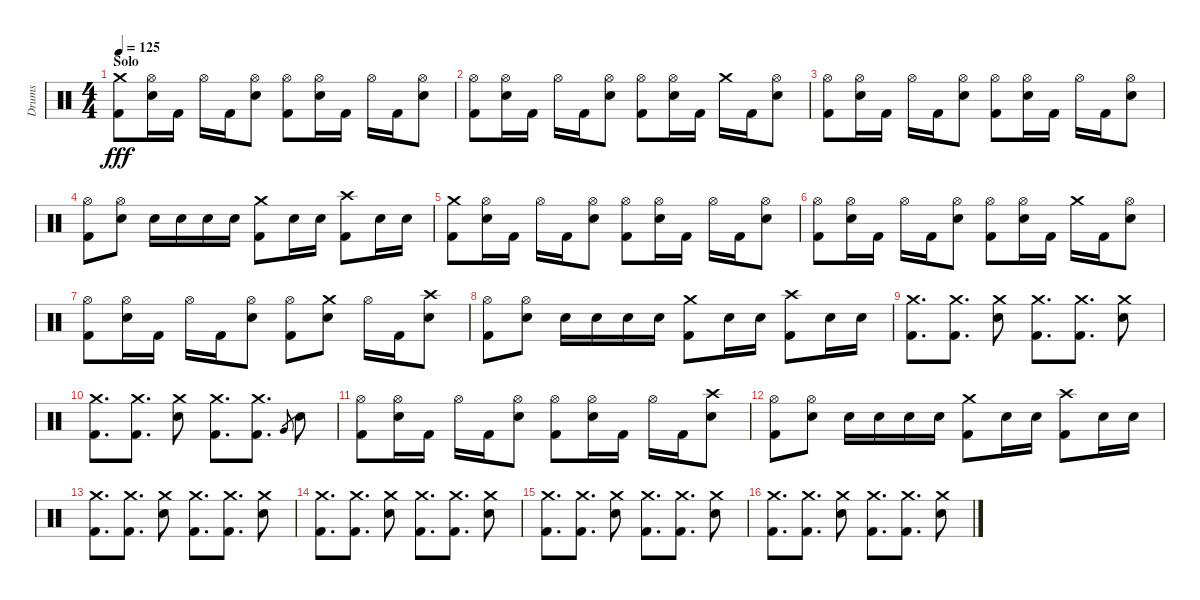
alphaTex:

\track ("Drums" "Drums") {instrument percussion}
\staff {score}
\articulation defaults
\ts (4 4)
\section ("" "Solo")
\tempo 125
\clef neutral
\ks c
("Crash medium (hit)" "Kick (hit) 2").8{dy fff} ("Hi-Hat (open)" "Electric Snare (hit)").16 "Kick (hit) 2".16 "Hi-Hat (open)".16 "Kick (hit) 2".16 ("Hi-Hat (open)" "Electric Snare (hit)").8 ("Hi-Hat (open)" "Kick (hit) 2").8 ("Hi-Hat (open)" "Electric Snare (hit)").16 "Kick (hit) 2".16 "Hi-Hat (open)".16 "Kick (hit) 2".16 ("Hi-Hat (open)" "Electric Snare (hit)").8 |
("Hi-Hat (open)" "Kick (hit) 2").8 ("Hi-Hat (open)" "Electric Snare (hit)").16 "Kick (hit) 2".16 "Hi-Hat (open)".16 "Kick (hit) 2".16 ("Hi-Hat (open)" "Electric Snare (hit)").8 ("Hi-Hat (open)" "Kick (hit) 2").8 ("Hi-Hat (open)" "Electric Snare (hit)").16 "Kick (hit) 2".16 "Crash medium (hit)".16 "Kick (hit) 2".16 ("Hi-Hat (open)" "Electric Snare (hit)").8 |
("Hi-Hat (open)" "Kick (hit) 2").8 ("Hi-Hat (open)" "Electric Snare (hit)").16 "Kick (hit) 2".16 "Hi-Hat (open)".16 "Kick (hit) 2".16 ("Hi-Hat (open)" "Electric Snare (hit)").8 ("Hi-Hat (open)" "Kick (hit) 2").8 ("Hi-Hat (open)" "Electric Snare (hit)").16 "Kick (hit) 2".16 "Hi-Hat (open)".16 "Kick (hit) 2".16 ("Hi-Hat (open)" "Electric Snare (hit)").8 |
("Hi-Hat (open)" "Kick (hit) 2").8 ("Hi-Hat (open)" "Electric Snare (hit)").8 "Electric Snare (hit)".16 "Electric Snare (hit)".16 "Electric Snare (hit)".16 "Electric Snare (hit)".16 ("Crash medium (hit)" "Kick (hit) 2").8 "Electric Snare (hit)".16 "Electric Snare (hit)".16 ("Crash high (hit)" "Kick (hit) 2").8 "Electric Snare (hit)".16 "Electric Snare (hit)".16 |
("Crash medium (hit)" "Kick (hit) 2").8 ("Hi-Hat (open)" "Electric Snare (hit)").16 "Kick (hit) 2".16 "Hi-Hat (open)".16 "Kick (hit) 2".16 ("Hi-Hat (open)" "Electric Snare (hit)").8 ("Hi-Hat (open)" "Kick (hit) 2").8 ("Hi-Hat (open)" "Electric Snare (hit)").16 "Kick (hit) 2".16 "Hi-Hat (open)".16 "Kick (hit) 2".16 ("Hi-Hat (open)" "Electric Snare (hit)").8 |
("Hi-Hat (open)" "Kick (hit) 2").8 ("Hi-Hat (open)" "Electric Snare (hit)").16 "Kick (hit) 2".16 "Hi-Hat (open)".16 "Kick (hit) 2".16 ("Hi-Hat (open)" "Electric Snare (hit)").8 ("Hi-Hat (open)" "Kick (hit) 2").8 ("Hi-Hat (open)" "Electric Snare (hit)").16 "Kick (hit) 2".16 "Crash medium (hit)".16 "Kick (hit) 2".16 ("Hi-Hat (open)" "Electric Snare (hit)").8 |
("Hi-Hat (open)" "Kick (hit) 2").8 ("Hi-Hat (open)" "Electric Snare (hit)").16 "Kick (hit) 2".16 "Hi-Hat (open)".16 "Kick (hit) 2".16 ("Hi-Hat (open)" "Electric Snare (hit)").8 ("Hi-Hat (open)" "Kick (hit) 2").8 ("Crash medium (hit)" "Electric Snare (hit)").8 "Hi-Hat (open)".16 "Kick (hit) 2".16 ("Crash high (hit)" "Electric Snare (hit)").8 |
("Hi-Hat (open)" "Kick (hit) 2").8 ("Hi-Hat (open)" "Electric Snare (hit)").8 "Electric Snare (hit)".16 "Electric Snare (hit)".16 "Electric Snare (hit)".16 "Electric Snare (hit)".16 ("Crash medium (hit)" "Kick (hit) 2").8 "Electric Snare (hit)".16 "Electric Snare (hit)".16 ("Crash high (hit)" "Kick (hit) 2").8 "Electric Snare (hit)".16 "Electric Snare (hit)".16 |
("Crash medium (hit)" "Kick (hit) 2").8{d} ("Crash medium (hit)" "Kick (hit) 2").8{d} ("Crash medium (hit)" "Electric Snare (hit)").8 ("Crash medium (hit)" "Kick (hit) 2").8{d} ("Crash medium (hit)" "Kick (hit) 2").8{d} ("Crash medium (hit)" "Electric Snare (hit)").8 |
("Crash medium (hit)" "Kick (hit) 2").8{d} ("Crash medium (hit)" "Kick (hit) 2").8{d} ("Crash medium (hit)" "Electric Snare (hit)").8 ("Crash medium (hit)" "Kick (hit) 2").8{d} ("Crash medium (hit)" "Kick (hit) 2").8{d} "Very Low Tom (hit)".8{gr} "Electric Snare (hit)".8 |
("Hi-Hat (open)" "Kick (hit) 2").8 ("Hi-Hat (open)" "Electric Snare (hit)").16 "Kick (hit) 2".16 "Hi-Hat (open)".16 "Kick (hit) 2".16 ("Hi-Hat (open)" "Electric Snare (hit)").8 ("Hi-Hat (open)" "Kick (hit) 2").8 ("Hi-Hat (open)" "Electric Snare (hit)").16 "Kick (hit) 2".16 "Hi-Hat (open)".16 "Kick (hit) 2".16 ("Crash high (hit)" "Electric Snare (hit)").8 |
("Hi-Hat (open)" "Kick (hit) 2").8 ("Hi-Hat (open)" "Electric Snare (hit)").8 "Electric Snare (hit)".16 "Electric Snare (hit)".16 "Electric Snare (hit)".16 "Electric Snare (hit)".16 ("Crash medium (hit)" "Kick (hit) 2").8 "Electric Snare (hit)".16 "Electric Snare (hit)".16 ("Crash high (hit)" "Kick (hit) 2").8 "Electric Snare (hit)".16 "Electric Snare (hit)".16 |
("Crash medium (hit)" "Kick (hit) 2").8{d} ("Crash medium (hit)" "Kick (hit) 2").8{d} ("Crash medium (hit)" "Electric Snare (hit)").8 ("Crash medium (hit)" "Kick (hit) 2").8{d} ("Crash medium (hit)" "Kick (hit) 2").8{d} ("Crash medium (hit)" "Electric Snare (hit)").8 |
("Crash medium (hit)" "Kick (hit) 2").8{d} ("Crash medium (hit)" "Kick (hit) 2").8{d} ("Crash medium (hit)" "Electric Snare (hit)").8 ("Crash medium (hit)" "Kick (hit) 2").8{d} ("Crash medium (hit)" "Kick (hit) 2").8{d} ("Crash medium (hit)" "Electric Snare (hit)").8 |
("Crash medium (hit)" "Kick (hit) 2").8{d} ("Crash medium (hit)" "Kick (hit) 2").8{d} ("Crash medium (hit)" "Electric Snare (hit)").8 ("Crash medium (hit)" "Kick (hit) 2").8{d} ("Crash medium (hit)" "Kick (hit) 2").8{d} ("Crash medium (hit)" "Electric Snare (hit)").8 |
("Crash medium (hit)" "Kick (hit) 2").8{d} ("Crash medium (hit)" "Kick (hit) 2").8{d} ("Crash medium (hit)" "Electric Snare (hit)").8 ("Crash medium (hit)" "Kick (hit) 2").8{d} ("Crash medium (hit)" "Kick (hit) 2").8{d} ("Crash medium (hit)" "Electric Snare (hit)").8
